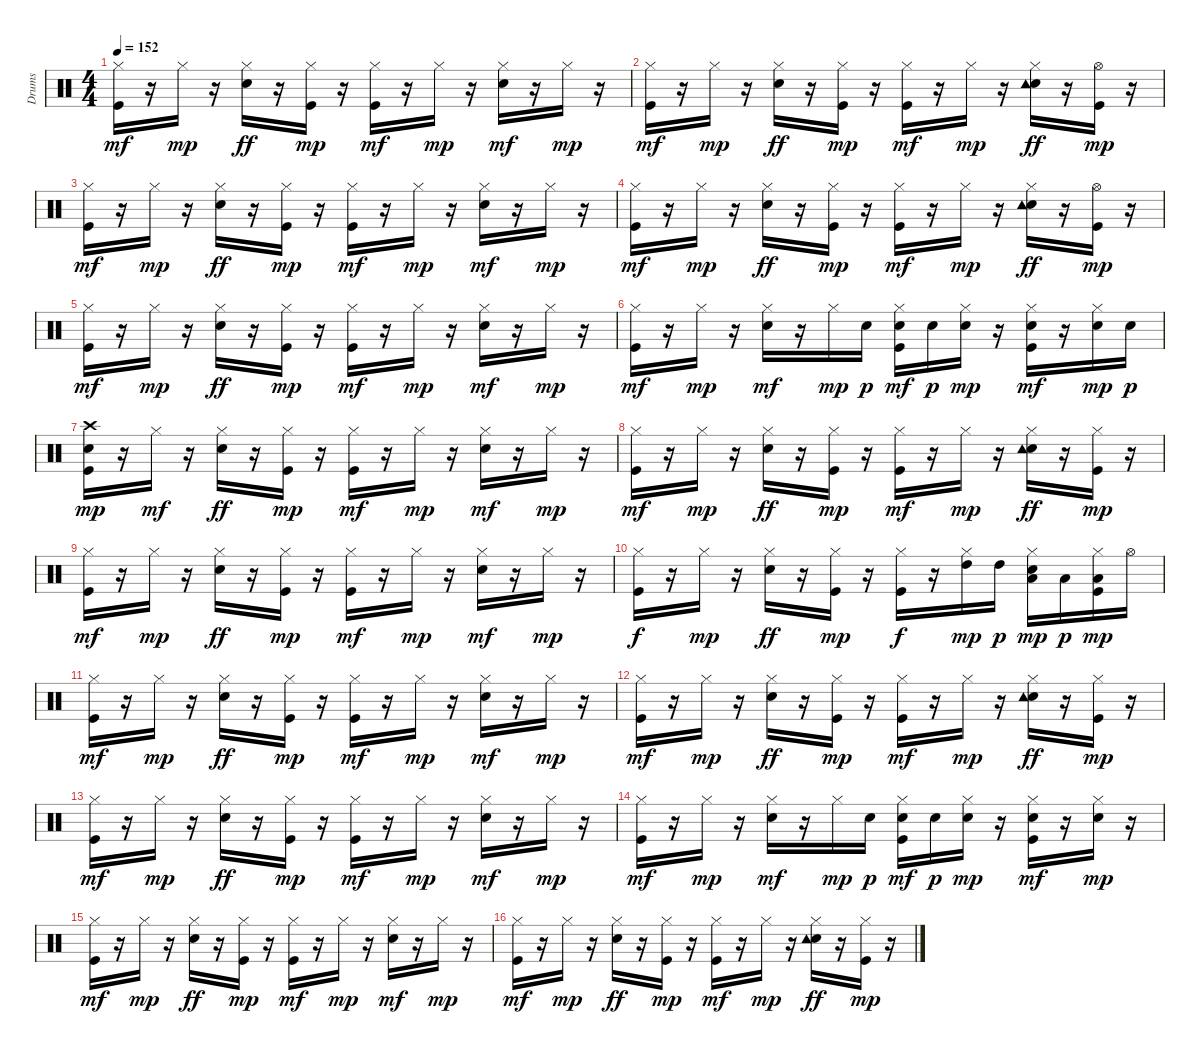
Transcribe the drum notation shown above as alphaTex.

\track ("Drums   " "Drums   ") {instrument percussion}
\staff {score}
\articulation defaults
\ts (4 4)
\tempo 152
\clef neutral
\ks c
("Kick (hit)" "Hi-Hat (closed)").16{dy mf} r.16 "Hi-Hat (closed)".16{dy mp} r.16 ("Snare (hit) 2" "Hi-Hat (closed)").16{dy ff} r.16 ("Kick (hit)" "Hi-Hat (closed)").16{dy mp} r.16 ("Kick (hit)" "Hi-Hat (closed)").16{dy mf} r.16 "Hi-Hat (closed)".16{dy mp} r.16 ("Snare (hit) 2" "Hi-Hat (closed)").16{dy mf} r.16 "Hi-Hat (closed)".16{dy mp} r.16 |
("Kick (hit)" "Hi-Hat (closed)").16{dy mf} r.16 "Hi-Hat (closed)".16{dy mp} r.16 ("Snare (hit) 2" "Hi-Hat (closed)").16{dy ff} r.16 ("Kick (hit)" "Hi-Hat (closed)").16{dy mp} r.16 ("Kick (hit)" "Hi-Hat (closed)").16{dy mf} r.16 "Hi-Hat (closed)".16{dy mp} r.16 ("Snare (hit) 2" "Hi-Hat (closed)" "Tambourine (hit)").16{dy ff} r.16 ("Kick (hit)" "Hi-Hat (open)").16{dy mp} r.16 |
("Kick (hit)" "Hi-Hat (closed)").16{dy mf} r.16 "Hi-Hat (closed)".16{dy mp} r.16 ("Snare (hit) 2" "Hi-Hat (closed)").16{dy ff} r.16 ("Kick (hit)" "Hi-Hat (closed)").16{dy mp} r.16 ("Kick (hit)" "Hi-Hat (closed)").16{dy mf} r.16 "Hi-Hat (closed)".16{dy mp} r.16 ("Snare (hit) 2" "Hi-Hat (closed)").16{dy mf} r.16 "Hi-Hat (closed)".16{dy mp} r.16 |
("Kick (hit)" "Hi-Hat (closed)").16{dy mf} r.16 "Hi-Hat (closed)".16{dy mp} r.16 ("Snare (hit) 2" "Hi-Hat (closed)").16{dy ff} r.16 ("Kick (hit)" "Hi-Hat (closed)").16{dy mp} r.16 ("Kick (hit)" "Hi-Hat (closed)").16{dy mf} r.16 "Hi-Hat (closed)".16{dy mp} r.16 ("Snare (hit) 2" "Hi-Hat (closed)" "Tambourine (hit)").16{dy ff} r.16 ("Kick (hit)" "Hi-Hat (open)").16{dy mp} r.16 |
("Kick (hit)" "Hi-Hat (closed)").16{dy mf} r.16 "Hi-Hat (closed)".16{dy mp} r.16 ("Snare (hit) 2" "Hi-Hat (closed)").16{dy ff} r.16 ("Kick (hit)" "Hi-Hat (closed)").16{dy mp} r.16 ("Kick (hit)" "Hi-Hat (closed)").16{dy mf} r.16 "Hi-Hat (closed)".16{dy mp} r.16 ("Snare (hit) 2" "Hi-Hat (closed)").16{dy mf} r.16 "Hi-Hat (closed)".16{dy mp} r.16 |
("Kick (hit)" "Hi-Hat (closed)").16{dy mf} r.16 "Hi-Hat (closed)".16{dy mp} r.16 ("Snare (hit) 2" "Hi-Hat (closed)").16{dy mf} r.16 "Hi-Hat (closed)".16{dy mp} "Snare (hit) 2".16{dy p} ("Kick (hit)" "Snare (hit) 2" "Hi-Hat (closed)").16{dy mf} "Snare (hit) 2".16{dy p} ("Snare (hit) 2" "Hi-Hat (closed)").16{dy mp} r.16 ("Kick (hit)" "Snare (hit) 2" "Hi-Hat (closed)").16{dy mf} r.16 ("Snare (hit) 2" "Hi-Hat (closed)").16{dy mp} "Snare (hit) 2".16{dy p} |
("Kick (hit)" "Snare (hit) 2" "Crash high (hit)").16{dy mp} r.16 "Hi-Hat (closed)".16{dy mf} r.16 ("Snare (hit) 2" "Hi-Hat (closed)").16{dy ff} r.16 ("Kick (hit)" "Hi-Hat (closed)").16{dy mp} r.16 ("Kick (hit)" "Hi-Hat (closed)").16{dy mf} r.16 "Hi-Hat (closed)".16{dy mp} r.16 ("Snare (hit) 2" "Hi-Hat (closed)").16{dy mf} r.16 "Hi-Hat (closed)".16{dy mp} r.16 |
("Kick (hit)" "Hi-Hat (closed)").16{dy mf} r.16 "Hi-Hat (closed)".16{dy mp} r.16 ("Snare (hit) 2" "Hi-Hat (closed)").16{dy ff} r.16 ("Kick (hit)" "Hi-Hat (closed)").16{dy mp} r.16 ("Kick (hit)" "Hi-Hat (closed)").16{dy mf} r.16 "Hi-Hat (closed)".16{dy mp} r.16 ("Snare (hit) 2" "Hi-Hat (closed)" "Tambourine (hit)").16{dy ff} r.16 ("Kick (hit)" "Hi-Hat (closed)").16{dy mp} r.16 |
("Kick (hit)" "Hi-Hat (closed)").16{dy mf} r.16 "Hi-Hat (closed)".16{dy mp} r.16 ("Snare (hit) 2" "Hi-Hat (closed)").16{dy ff} r.16 ("Kick (hit)" "Hi-Hat (closed)").16{dy mp} r.16 ("Kick (hit)" "Hi-Hat (closed)").16{dy mf} r.16 "Hi-Hat (closed)".16{dy mp} r.16 ("Snare (hit) 2" "Hi-Hat (closed)").16{dy mf} r.16 "Hi-Hat (closed)".16{dy mp} r.16 |
("Kick (hit)" "Hi-Hat (closed)").16{dy f} r.16 "Hi-Hat (closed)".16{dy mp} r.16 ("Snare (hit) 2" "Hi-Hat (closed)").16{dy ff} r.16 ("Kick (hit)" "Hi-Hat (closed)").16{dy mp} r.16 ("Kick (hit)" "Hi-Hat (closed)").16{dy f} r.16 ("Hi-Hat (closed)" "High Tom (hit)").16{dy mp} "High Tom (hit)".16{dy p} ("Snare (hit) 2" "Hi-Hat (closed)" "Low Tom (hit)").16{dy mp} "Low Tom (hit)".16{dy p} ("Kick (hit)" "Hi-Hat (closed)" "Low Floor Tom (hit)").16{dy mp} "Hi-Hat (open)".16 |
("Kick (hit)" "Hi-Hat (closed)").16{dy mf} r.16 "Hi-Hat (closed)".16{dy mp} r.16 ("Snare (hit) 2" "Hi-Hat (closed)").16{dy ff} r.16 ("Kick (hit)" "Hi-Hat (closed)").16{dy mp} r.16 ("Kick (hit)" "Hi-Hat (closed)").16{dy mf} r.16 "Hi-Hat (closed)".16{dy mp} r.16 ("Snare (hit) 2" "Hi-Hat (closed)").16{dy mf} r.16 "Hi-Hat (closed)".16{dy mp} r.16 |
("Kick (hit)" "Hi-Hat (closed)").16{dy mf} r.16 "Hi-Hat (closed)".16{dy mp} r.16 ("Snare (hit) 2" "Hi-Hat (closed)").16{dy ff} r.16 ("Kick (hit)" "Hi-Hat (closed)").16{dy mp} r.16 ("Kick (hit)" "Hi-Hat (closed)").16{dy mf} r.16 "Hi-Hat (closed)".16{dy mp} r.16 ("Snare (hit) 2" "Hi-Hat (closed)" "Tambourine (hit)").16{dy ff} r.16 ("Kick (hit)" "Hi-Hat (closed)").16{dy mp} r.16 |
("Kick (hit)" "Hi-Hat (closed)").16{dy mf} r.16 "Hi-Hat (closed)".16{dy mp} r.16 ("Snare (hit) 2" "Hi-Hat (closed)").16{dy ff} r.16 ("Kick (hit)" "Hi-Hat (closed)").16{dy mp} r.16 ("Kick (hit)" "Hi-Hat (closed)").16{dy mf} r.16 "Hi-Hat (closed)".16{dy mp} r.16 ("Snare (hit) 2" "Hi-Hat (closed)").16{dy mf} r.16 "Hi-Hat (closed)".16{dy mp} r.16 |
("Kick (hit)" "Hi-Hat (closed)").16{dy mf} r.16 "Hi-Hat (closed)".16{dy mp} r.16 ("Snare (hit) 2" "Hi-Hat (closed)").16{dy mf} r.16 "Hi-Hat (closed)".16{dy mp} "Snare (hit) 2".16{dy p} ("Kick (hit)" "Snare (hit) 2" "Hi-Hat (closed)").16{dy mf} "Snare (hit) 2".16{dy p} ("Snare (hit) 2" "Hi-Hat (closed)").16{dy mp} r.16 ("Kick (hit)" "Snare (hit) 2" "Hi-Hat (closed)").16{dy mf} r.16 ("Snare (hit) 2" "Hi-Hat (closed)").16{dy mp} r.16 |
("Kick (hit)" "Hi-Hat (closed)").16{dy mf} r.16 "Hi-Hat (closed)".16{dy mp} r.16 ("Snare (hit) 2" "Hi-Hat (closed)").16{dy ff} r.16 ("Kick (hit)" "Hi-Hat (closed)").16{dy mp} r.16 ("Kick (hit)" "Hi-Hat (closed)").16{dy mf} r.16 "Hi-Hat (closed)".16{dy mp} r.16 ("Snare (hit) 2" "Hi-Hat (closed)").16{dy mf} r.16 "Hi-Hat (closed)".16{dy mp} r.16 |
("Kick (hit)" "Hi-Hat (closed)").16{dy mf} r.16 "Hi-Hat (closed)".16{dy mp} r.16 ("Snare (hit) 2" "Hi-Hat (closed)").16{dy ff} r.16 ("Kick (hit)" "Hi-Hat (closed)").16{dy mp} r.16 ("Kick (hit)" "Hi-Hat (closed)").16{dy mf} r.16 "Hi-Hat (closed)".16{dy mp} r.16 ("Snare (hit) 2" "Hi-Hat (closed)" "Tambourine (hit)").16{dy ff} r.16 ("Kick (hit)" "Hi-Hat (closed)").16{dy mp} r.16
